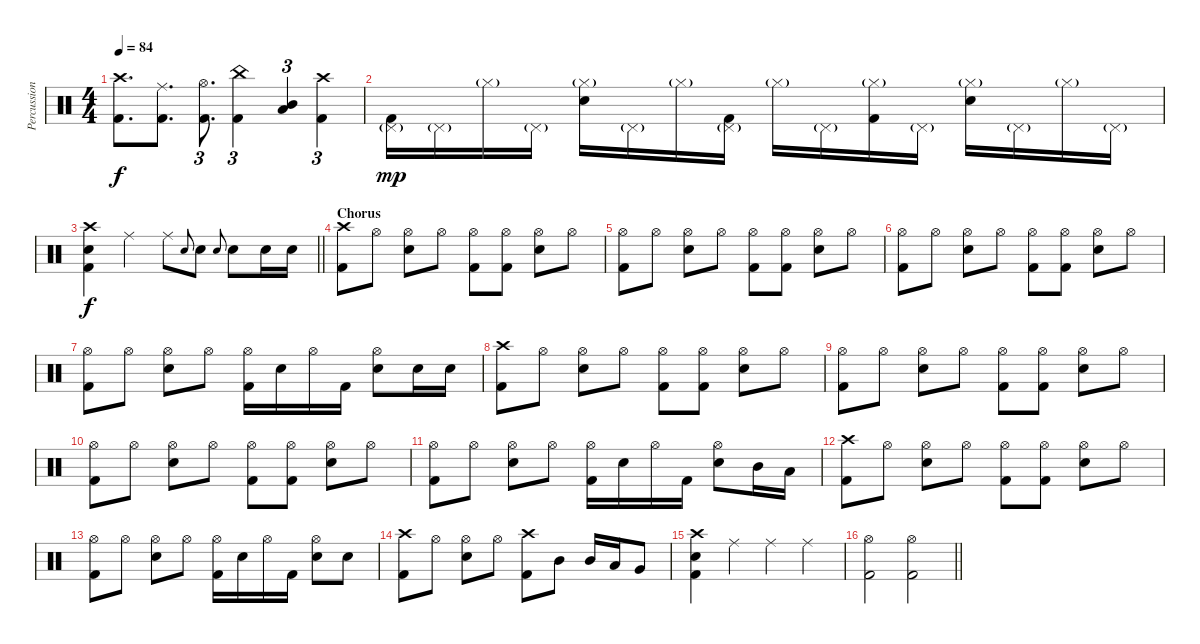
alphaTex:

\track ("Percussion" "Percussion") {instrument percussion}
\staff {score}
\articulation defaults
\ts (4 4)
\tempo 84
\clef neutral
\ks c
("Crash high (hit)" "Kick (hit) 2").8{d dy f} ("Ride (middle)" "Kick (hit) 2").8{d} ("Hi-Hat (open)" "Kick (hit) 2").8{d tu (3 2)} ("China (hit)" "Kick (hit) 2").4{tu (3 2)} ("Low Tom (hit)" "Mid Tom (hit)").4{tu (3 2)} ("Crash high (hit)" "Kick (hit) 2").4{tu (3 2)} |
("Pedal Hi-Hat (hit)"{g} "Kick (hit) 2").16{dy mp} "Pedal Hi-Hat (hit)"{g}.16 "Hi-Hat (closed)"{g}.16 "Pedal Hi-Hat (hit)"{g}.16 ("Hi-Hat (closed)"{g} "Electric Snare (hit)").16 "Pedal Hi-Hat (hit)"{g}.16 "Hi-Hat (closed)"{g}.16 ("Pedal Hi-Hat (hit)"{g} "Kick (hit) 2").16 "Hi-Hat (closed)"{g}.16 "Pedal Hi-Hat (hit)"{g}.16 ("Hi-Hat (closed)"{g} "Kick (hit) 2").16 "Pedal Hi-Hat (hit)"{g}.16 ("Hi-Hat (closed)"{g} "Electric Snare (hit)").16 "Pedal Hi-Hat (hit)"{g}.16 "Hi-Hat (closed)"{g}.16 "Pedal Hi-Hat (hit)"{g}.16 |
\barLineRight lightlight
("Crash high (hit)" "Electric Snare (hit)" "Kick (hit) 2").4{dy f} "Ride (middle)".4 "Ride (middle)".8 "Snare (hit) 2"{h}.8{gr onbeat} "Snare (hit) 2".8 "Snare (hit) 2"{h}.8{gr onbeat} "Snare (hit) 2".8 "Snare (hit) 2".16 "Snare (hit) 2".16 |
\section ("" "Chorus")
("Crash high (hit)" "Kick (hit) 2").8 "Hi-Hat (open)".8 ("Hi-Hat (open)" "Electric Snare (hit)").8 "Hi-Hat (open)".8 ("Hi-Hat (open)" "Kick (hit) 2").8 ("Hi-Hat (open)" "Kick (hit) 2").8 ("Hi-Hat (open)" "Electric Snare (hit)").8 "Hi-Hat (open)".8 |
("Hi-Hat (open)" "Kick (hit) 2").8 "Hi-Hat (open)".8 ("Hi-Hat (open)" "Electric Snare (hit)").8 "Hi-Hat (open)".8 ("Hi-Hat (open)" "Kick (hit) 2").8 ("Hi-Hat (open)" "Kick (hit) 2").8 ("Hi-Hat (open)" "Electric Snare (hit)").8 "Hi-Hat (open)".8 |
("Hi-Hat (open)" "Kick (hit) 2").8 "Hi-Hat (open)".8 ("Hi-Hat (open)" "Electric Snare (hit)").8 "Hi-Hat (open)".8 ("Hi-Hat (open)" "Kick (hit) 2").8 ("Hi-Hat (open)" "Kick (hit) 2").8 ("Hi-Hat (open)" "Electric Snare (hit)").8 "Hi-Hat (open)".8 |
("Hi-Hat (open)" "Kick (hit) 2").8 "Hi-Hat (open)".8 ("Hi-Hat (open)" "Electric Snare (hit)").8 "Hi-Hat (open)".8 ("Hi-Hat (open)" "Kick (hit) 2").16 "Electric Snare (hit)".16 "Hi-Hat (open)".16 "Kick (hit) 2".16 ("Hi-Hat (open)" "Electric Snare (hit)").8 "Electric Snare (hit)".16 "Electric Snare (hit)".16 |
("Crash high (hit)" "Kick (hit) 2").8 "Hi-Hat (open)".8 ("Hi-Hat (open)" "Electric Snare (hit)").8 "Hi-Hat (open)".8 ("Hi-Hat (open)" "Kick (hit) 2").8 ("Hi-Hat (open)" "Kick (hit) 2").8 ("Hi-Hat (open)" "Electric Snare (hit)").8 "Hi-Hat (open)".8 |
("Hi-Hat (open)" "Kick (hit) 2").8 "Hi-Hat (open)".8 ("Hi-Hat (open)" "Electric Snare (hit)").8 "Hi-Hat (open)".8 ("Hi-Hat (open)" "Kick (hit) 2").8 ("Hi-Hat (open)" "Kick (hit) 2").8 ("Hi-Hat (open)" "Electric Snare (hit)").8 "Hi-Hat (open)".8 |
("Hi-Hat (open)" "Kick (hit) 2").8 "Hi-Hat (open)".8 ("Hi-Hat (open)" "Electric Snare (hit)").8 "Hi-Hat (open)".8 ("Hi-Hat (open)" "Kick (hit) 2").8 ("Hi-Hat (open)" "Kick (hit) 2").8 ("Hi-Hat (open)" "Electric Snare (hit)").8 "Hi-Hat (open)".8 |
("Hi-Hat (open)" "Kick (hit) 2").8 "Hi-Hat (open)".8 ("Hi-Hat (open)" "Electric Snare (hit)").8 "Hi-Hat (open)".8 ("Hi-Hat (open)" "Kick (hit) 2").16 "Electric Snare (hit)".16 "Hi-Hat (open)".16 "Kick (hit) 2".16 ("Hi-Hat (open)" "Electric Snare (hit)").8 "Mid Tom (hit)".16 "Low Tom (hit)".16 |
("Crash high (hit)" "Kick (hit) 2").8 "Hi-Hat (open)".8 ("Hi-Hat (open)" "Electric Snare (hit)").8 "Hi-Hat (open)".8 ("Hi-Hat (open)" "Kick (hit) 2").8 ("Hi-Hat (open)" "Kick (hit) 2").8 ("Hi-Hat (open)" "Electric Snare (hit)").8 "Hi-Hat (open)".8 |
("Hi-Hat (open)" "Kick (hit) 2").8 "Hi-Hat (open)".8 ("Hi-Hat (open)" "Electric Snare (hit)").8 "Hi-Hat (open)".8 ("Hi-Hat (open)" "Kick (hit) 2").16 "Electric Snare (hit)".16 "Hi-Hat (open)".16 "Kick (hit) 2".16 ("Hi-Hat (open)" "Electric Snare (hit)").8 "Electric Snare (hit)".8 |
("Crash high (hit)" "Kick (hit) 2").8 "Hi-Hat (open)".8 ("Hi-Hat (open)" "Electric Snare (hit)").8 "Hi-Hat (open)".8 ("Crash high (hit)" "Kick (hit) 2").8 "Mid Tom (hit)".8 "Mid Tom (hit)".16 "Low Tom (hit)".16 "Very Low Tom (hit)".8 |
("Crash high (hit)" "Electric Snare (hit)" "Kick (hit) 2").4 "Ride (middle)".4 "Ride (middle)".4 "Ride (middle)".4 |
\barLineRight lightlight
("Hi-Hat (open)" "Kick (hit) 2").2 ("Hi-Hat (open)" "Kick (hit) 2").2
